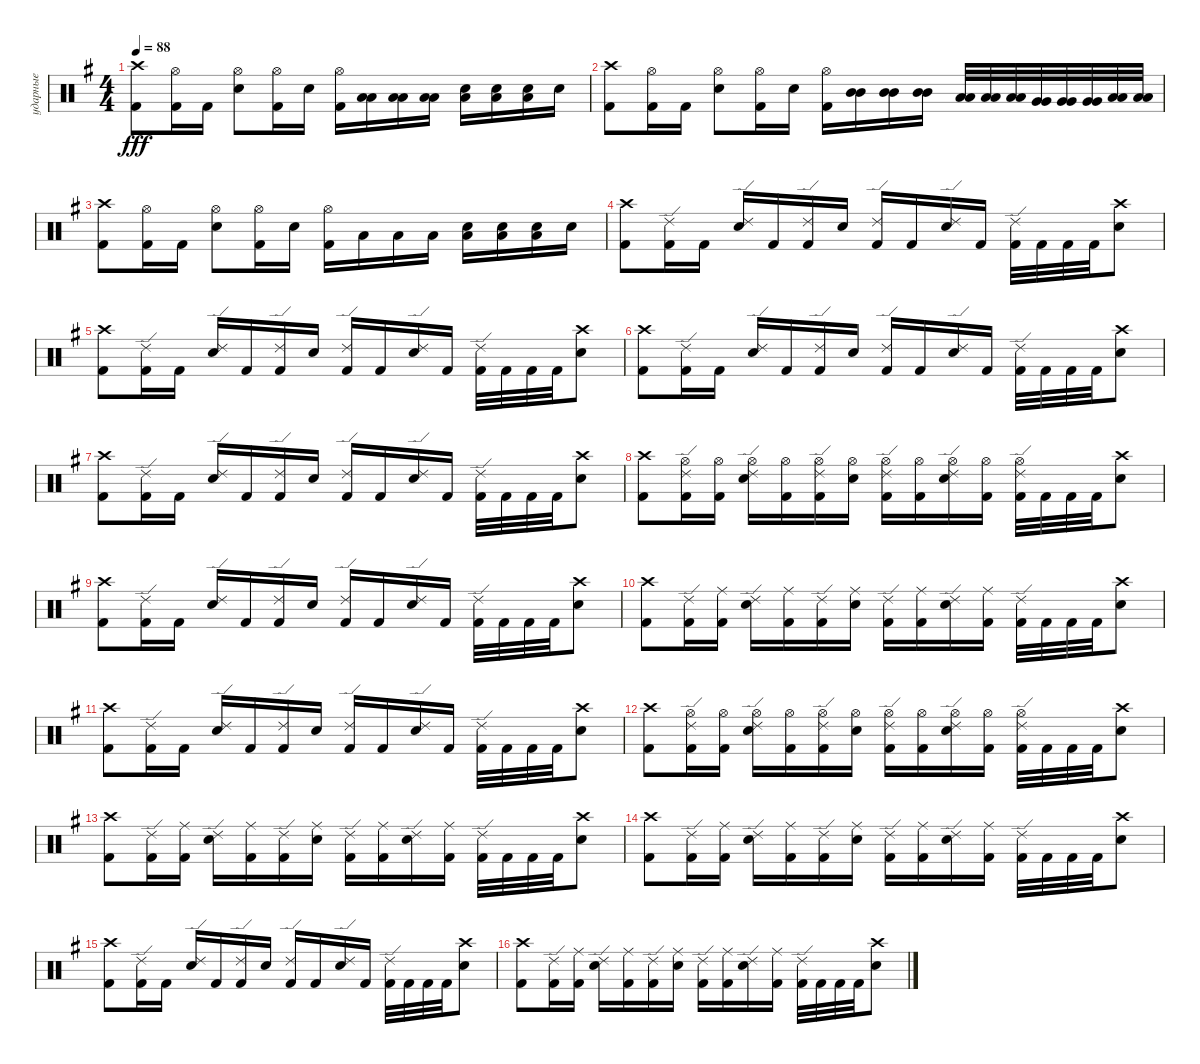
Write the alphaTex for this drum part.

\track ("ударные" "ударные") {instrument percussion}
\staff {score}
\articulation defaults
\ts (4 4)
\tempo 88
\clef neutral
\ks eminor
("Crash high (hit)" "Kick (hit) 2").8{dy fff} ("Hi-Hat (open)" "Kick (hit) 2").16 "Kick (hit) 2".16 ("Hi-Hat (open)" "Snare (hit) 2").8 ("Hi-Hat (open)" "Kick (hit) 2").16 "Snare (hit) 2".16 ("Hi-Hat (open)" "Kick (hit) 2").16 ("Low Tom (hit)" "Low Tom (hit)").16 ("Low Tom (hit)" "Low Tom (hit)").16 ("Low Tom (hit)" "Low Tom (hit)").16 ("Snare (hit) 2" "Low Tom (hit)").16 ("Snare (hit) 2" "Low Tom (hit)").16 ("Snare (hit) 2" "Low Tom (hit)").16 "Snare (hit) 2".16 |
("Crash high (hit)" "Kick (hit) 2").8 ("Hi-Hat (open)" "Kick (hit) 2").16 "Kick (hit) 2".16 ("Hi-Hat (open)" "Snare (hit) 2").8 ("Hi-Hat (open)" "Kick (hit) 2").16 "Snare (hit) 2".16 ("Hi-Hat (open)" "Kick (hit) 2").16 ("Mid Tom (hit)" "Mid Tom (hit)").16 ("Mid Tom (hit)" "Mid Tom (hit)").16 ("Mid Tom (hit)" "Mid Tom (hit)").16 ("Low Tom (hit)" "Low Tom (hit)").32 ("Low Tom (hit)" "Low Tom (hit)").32 ("Low Tom (hit)" "Low Tom (hit)").32 ("Very Low Tom (hit)" "Very Low Tom (hit)").32 ("Very Low Tom (hit)" "Very Low Tom (hit)").32 ("Very Low Tom (hit)" "Very Low Tom (hit)").32 ("Low Floor Tom (hit)" "Low Floor Tom (hit)").32 ("Low Floor Tom (hit)" "Low Floor Tom (hit)").32 |
("Crash high (hit)" "Kick (hit) 2").8 ("Hi-Hat (open)" "Kick (hit) 2").16 "Kick (hit) 2".16 ("Hi-Hat (open)" "Snare (hit) 2").8 ("Hi-Hat (open)" "Kick (hit) 2").16 "Snare (hit) 2".16 ("Hi-Hat (open)" "Kick (hit) 2").16 "Low Tom (hit)".16 "Low Tom (hit)".16 "Low Tom (hit)".16 ("Snare (hit) 2" "Low Tom (hit)").16 ("Snare (hit) 2" "Low Tom (hit)").16 ("Snare (hit) 2" "Low Tom (hit)").16 "Snare (hit) 2".16 |
("Crash high (hit)" "Kick (hit) 2").8 ("Ride (edge) 2" "Kick (hit) 2").16 "Kick (hit) 2".16 ("Ride (edge) 2" "Snare (hit) 2").16 "Kick (hit) 2".16 ("Ride (edge) 2" "Kick (hit) 2").16 "Snare (hit) 2".16 ("Ride (edge) 2" "Kick (hit) 2").16 "Kick (hit) 2".16 ("Ride (edge) 2" "Snare (hit) 2").16 "Kick (hit) 2".16 ("Ride (edge) 2" "Kick (hit) 2").32 "Kick (hit) 2".32 "Kick (hit) 2".32 "Kick (hit) 2".32 ("Crash high (hit)" "Snare (hit) 2").8 |
("Crash high (hit)" "Kick (hit) 2").8 ("Ride (edge) 2" "Kick (hit) 2").16 "Kick (hit) 2".16 ("Ride (edge) 2" "Snare (hit) 2").16 "Kick (hit) 2".16 ("Ride (edge) 2" "Kick (hit) 2").16 "Snare (hit) 2".16 ("Ride (edge) 2" "Kick (hit) 2").16 "Kick (hit) 2".16 ("Ride (edge) 2" "Snare (hit) 2").16 "Kick (hit) 2".16 ("Ride (edge) 2" "Kick (hit) 2").32 "Kick (hit) 2".32 "Kick (hit) 2".32 "Kick (hit) 2".32 ("Crash high (hit)" "Snare (hit) 2").8 |
("Crash high (hit)" "Kick (hit) 2").8 ("Ride (edge) 2" "Kick (hit) 2").16 "Kick (hit) 2".16 ("Ride (edge) 2" "Snare (hit) 2").16 "Kick (hit) 2".16 ("Ride (edge) 2" "Kick (hit) 2").16 "Snare (hit) 2".16 ("Ride (edge) 2" "Kick (hit) 2").16 "Kick (hit) 2".16 ("Ride (edge) 2" "Snare (hit) 2").16 "Kick (hit) 2".16 ("Ride (edge) 2" "Kick (hit) 2").32 "Kick (hit) 2".32 "Kick (hit) 2".32 "Kick (hit) 2".32 ("Crash high (hit)" "Snare (hit) 2").8 |
("Crash high (hit)" "Kick (hit) 2").8 ("Ride (edge) 2" "Kick (hit) 2").16 "Kick (hit) 2".16 ("Ride (edge) 2" "Snare (hit) 2").16 "Kick (hit) 2".16 ("Ride (edge) 2" "Kick (hit) 2").16 "Snare (hit) 2".16 ("Ride (edge) 2" "Kick (hit) 2").16 "Kick (hit) 2".16 ("Ride (edge) 2" "Snare (hit) 2").16 "Kick (hit) 2".16 ("Ride (edge) 2" "Kick (hit) 2").32 "Kick (hit) 2".32 "Kick (hit) 2".32 "Kick (hit) 2".32 ("Crash high (hit)" "Snare (hit) 2").8 |
("Crash high (hit)" "Kick (hit) 2").8 ("Ride (edge) 2" "Hi-Hat (open)" "Kick (hit) 2").16 ("Hi-Hat (open)" "Kick (hit) 2").16 ("Ride (edge) 2" "Hi-Hat (open)" "Snare (hit) 2").16 ("Hi-Hat (open)" "Kick (hit) 2").16 ("Ride (edge) 2" "Hi-Hat (open)" "Kick (hit) 2").16 ("Hi-Hat (open)" "Snare (hit) 2").16 ("Ride (edge) 2" "Hi-Hat (open)" "Kick (hit) 2").16 ("Hi-Hat (open)" "Kick (hit) 2").16 ("Ride (edge) 2" "Hi-Hat (open)" "Snare (hit) 2").16 ("Hi-Hat (open)" "Kick (hit) 2").16 ("Ride (edge) 2" "Hi-Hat (open)" "Kick (hit) 2").32 "Kick (hit) 2".32 "Kick (hit) 2".32 "Kick (hit) 2".32 ("Crash high (hit)" "Snare (hit) 2").8 |
("Crash high (hit)" "Kick (hit) 2").8 ("Ride (edge) 2" "Kick (hit) 2").16 "Kick (hit) 2".16 ("Ride (edge) 2" "Snare (hit) 2").16 "Kick (hit) 2".16 ("Ride (edge) 2" "Kick (hit) 2").16 "Snare (hit) 2".16 ("Ride (edge) 2" "Kick (hit) 2").16 "Kick (hit) 2".16 ("Ride (edge) 2" "Snare (hit) 2").16 "Kick (hit) 2".16 ("Ride (edge) 2" "Kick (hit) 2").32 "Kick (hit) 2".32 "Kick (hit) 2".32 "Kick (hit) 2".32 ("Crash high (hit)" "Snare (hit) 2").8 |
("Crash high (hit)" "Kick (hit) 2").8 ("Ride (edge) 2" "Kick (hit) 2").16 ("Ride (middle)" "Kick (hit) 2").16 ("Ride (edge) 2" "Snare (hit) 2").16 ("Ride (middle)" "Kick (hit) 2").16 ("Ride (edge) 2" "Kick (hit) 2").16 ("Ride (middle)" "Snare (hit) 2").16 ("Ride (edge) 2" "Kick (hit) 2").16 ("Ride (middle)" "Kick (hit) 2").16 ("Ride (edge) 2" "Snare (hit) 2").16 ("Ride (middle)" "Kick (hit) 2").16 ("Ride (edge) 2" "Kick (hit) 2").32 "Kick (hit) 2".32 "Kick (hit) 2".32 "Kick (hit) 2".32 ("Crash high (hit)" "Snare (hit) 2").8 |
("Crash high (hit)" "Kick (hit) 2").8 ("Ride (edge) 2" "Kick (hit) 2").16 "Kick (hit) 2".16 ("Ride (edge) 2" "Snare (hit) 2").16 "Kick (hit) 2".16 ("Ride (edge) 2" "Kick (hit) 2").16 "Snare (hit) 2".16 ("Ride (edge) 2" "Kick (hit) 2").16 "Kick (hit) 2".16 ("Ride (edge) 2" "Snare (hit) 2").16 "Kick (hit) 2".16 ("Ride (edge) 2" "Kick (hit) 2").32 "Kick (hit) 2".32 "Kick (hit) 2".32 "Kick (hit) 2".32 ("Crash high (hit)" "Snare (hit) 2").8 |
("Crash high (hit)" "Kick (hit) 2").8 ("Ride (edge) 2" "Hi-Hat (open)" "Kick (hit) 2").16 ("Hi-Hat (open)" "Kick (hit) 2").16 ("Ride (edge) 2" "Hi-Hat (open)" "Snare (hit) 2").16 ("Hi-Hat (open)" "Kick (hit) 2").16 ("Ride (edge) 2" "Hi-Hat (open)" "Kick (hit) 2").16 ("Hi-Hat (open)" "Snare (hit) 2").16 ("Ride (edge) 2" "Hi-Hat (open)" "Kick (hit) 2").16 ("Hi-Hat (open)" "Kick (hit) 2").16 ("Ride (edge) 2" "Hi-Hat (open)" "Snare (hit) 2").16 ("Hi-Hat (open)" "Kick (hit) 2").16 ("Ride (edge) 2" "Hi-Hat (open)" "Kick (hit) 2").32 "Kick (hit) 2".32 "Kick (hit) 2".32 "Kick (hit) 2".32 ("Crash high (hit)" "Snare (hit) 2").8 |
("Crash high (hit)" "Kick (hit) 2").8 ("Ride (edge) 2" "Kick (hit) 2").16 ("Ride (middle)" "Kick (hit) 2").16 ("Ride (edge) 2" "Snare (hit) 2").16 ("Ride (middle)" "Kick (hit) 2").16 ("Ride (edge) 2" "Kick (hit) 2").16 ("Ride (middle)" "Snare (hit) 2").16 ("Ride (edge) 2" "Kick (hit) 2").16 ("Ride (middle)" "Kick (hit) 2").16 ("Ride (edge) 2" "Snare (hit) 2").16 ("Ride (middle)" "Kick (hit) 2").16 ("Ride (edge) 2" "Kick (hit) 2").32 "Kick (hit) 2".32 "Kick (hit) 2".32 "Kick (hit) 2".32 ("Crash high (hit)" "Snare (hit) 2").8 |
("Crash high (hit)" "Kick (hit) 2").8 ("Ride (edge) 2" "Kick (hit) 2").16 ("Ride (middle)" "Kick (hit) 2").16 ("Ride (edge) 2" "Snare (hit) 2").16 ("Ride (middle)" "Kick (hit) 2").16 ("Ride (edge) 2" "Kick (hit) 2").16 ("Ride (middle)" "Snare (hit) 2").16 ("Ride (edge) 2" "Kick (hit) 2").16 ("Ride (middle)" "Kick (hit) 2").16 ("Ride (edge) 2" "Snare (hit) 2").16 ("Ride (middle)" "Kick (hit) 2").16 ("Ride (edge) 2" "Kick (hit) 2").32 "Kick (hit) 2".32 "Kick (hit) 2".32 "Kick (hit) 2".32 ("Crash high (hit)" "Snare (hit) 2").8 |
("Crash high (hit)" "Kick (hit) 2").8 ("Ride (edge) 2" "Kick (hit) 2").16 "Kick (hit) 2".16 ("Ride (edge) 2" "Snare (hit) 2").16 "Kick (hit) 2".16 ("Ride (edge) 2" "Kick (hit) 2").16 "Snare (hit) 2".16 ("Ride (edge) 2" "Kick (hit) 2").16 "Kick (hit) 2".16 ("Ride (edge) 2" "Snare (hit) 2").16 "Kick (hit) 2".16 ("Ride (edge) 2" "Kick (hit) 2").32 "Kick (hit) 2".32 "Kick (hit) 2".32 "Kick (hit) 2".32 ("Crash high (hit)" "Snare (hit) 2").8 |
("Crash high (hit)" "Kick (hit) 2").8 ("Ride (edge) 2" "Kick (hit) 2").16 ("Ride (middle)" "Kick (hit) 2").16 ("Ride (edge) 2" "Snare (hit) 2").16 ("Ride (middle)" "Kick (hit) 2").16 ("Ride (edge) 2" "Kick (hit) 2").16 ("Ride (middle)" "Snare (hit) 2").16 ("Ride (edge) 2" "Kick (hit) 2").16 ("Ride (middle)" "Kick (hit) 2").16 ("Ride (edge) 2" "Snare (hit) 2").16 ("Ride (middle)" "Kick (hit) 2").16 ("Ride (edge) 2" "Kick (hit) 2").32 "Kick (hit) 2".32 "Kick (hit) 2".32 "Kick (hit) 2".32 ("Crash high (hit)" "Snare (hit) 2").8
